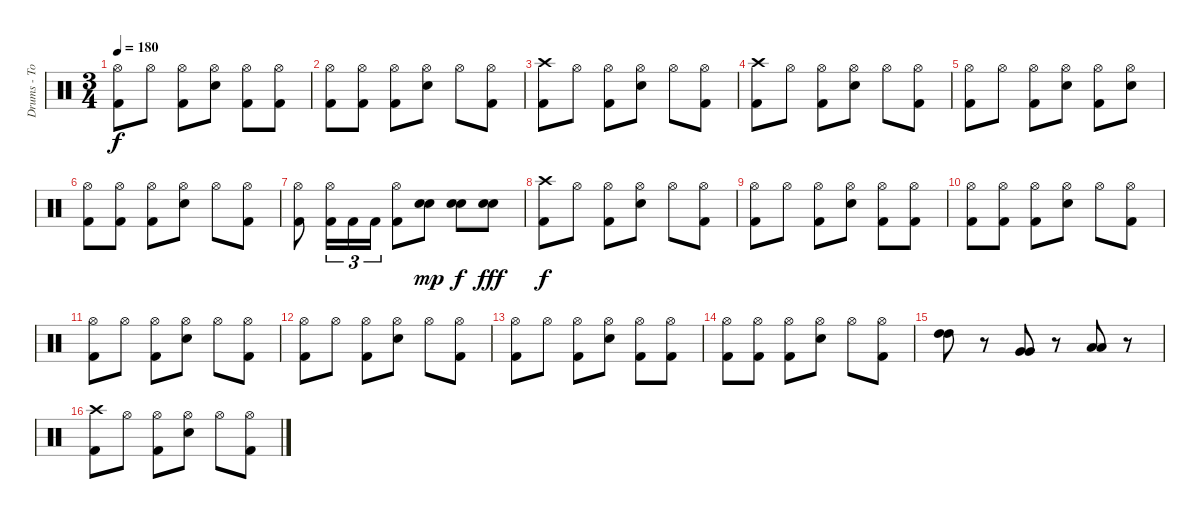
\track ("Drums - Tomas" "Drums - To") {instrument percussion}
\staff {score}
\articulation defaults
\ts (3 4)
\tempo 180
\clef neutral
\ks c
("Hi-Hat (open)" "Kick (hit) 2").8{dy f} "Hi-Hat (open)".8 ("Hi-Hat (open)" "Kick (hit) 2").8 ("Hi-Hat (open)" "Electric Snare (hit)").8 ("Hi-Hat (open)" "Kick (hit) 2").8 ("Hi-Hat (open)" "Kick (hit) 2").8 |
("Hi-Hat (open)" "Kick (hit) 2").8 ("Hi-Hat (open)" "Kick (hit) 2").8 ("Hi-Hat (open)" "Kick (hit) 2").8 ("Hi-Hat (open)" "Electric Snare (hit)").8 "Hi-Hat (open)".8 ("Hi-Hat (open)" "Kick (hit) 2").8 |
("Crash high (hit)" "Kick (hit) 2").8 "Hi-Hat (open)".8 ("Hi-Hat (open)" "Kick (hit) 2").8 ("Hi-Hat (open)" "Electric Snare (hit)").8 "Hi-Hat (open)".8 ("Hi-Hat (open)" "Kick (hit) 2").8 |
("Crash high (hit)" "Kick (hit) 2").8 "Hi-Hat (open)".8 ("Hi-Hat (open)" "Kick (hit) 2").8 ("Hi-Hat (open)" "Electric Snare (hit)").8 "Hi-Hat (open)".8 ("Hi-Hat (open)" "Kick (hit) 2").8 |
("Hi-Hat (open)" "Kick (hit) 2").8 "Hi-Hat (open)".8 ("Hi-Hat (open)" "Kick (hit) 2").8 ("Hi-Hat (open)" "Electric Snare (hit)").8 ("Hi-Hat (open)" "Kick (hit) 2").8 ("Hi-Hat (open)" "Electric Snare (hit)").8 |
("Hi-Hat (open)" "Kick (hit) 2").8 ("Hi-Hat (open)" "Kick (hit) 2").8 ("Hi-Hat (open)" "Kick (hit) 2").8 ("Hi-Hat (open)" "Electric Snare (hit)").8 "Hi-Hat (open)".8 ("Hi-Hat (open)" "Kick (hit) 2").8 |
("Hi-Hat (open)" "Kick (hit) 2").8 ("Hi-Hat (open)" "Kick (hit) 2").16{tu (3 2)} "Kick (hit) 2".16{tu (3 2)} "Kick (hit) 2".16{tu (3 2)} ("Hi-Hat (open)" "Kick (hit) 2").8 ("Electric Snare (hit)" "Electric Snare (hit)").8{dy mp} ("Electric Snare (hit)" "Electric Snare (hit)").8{dy f} ("Electric Snare (hit)" "Electric Snare (hit)").8{dy fff} |
("Crash high (hit)" "Kick (hit) 2").8{dy f} "Hi-Hat (open)".8 ("Hi-Hat (open)" "Kick (hit) 2").8 ("Hi-Hat (open)" "Electric Snare (hit)").8 "Hi-Hat (open)".8 ("Hi-Hat (open)" "Kick (hit) 2").8 |
("Hi-Hat (open)" "Kick (hit) 2").8 "Hi-Hat (open)".8 ("Hi-Hat (open)" "Kick (hit) 2").8 ("Hi-Hat (open)" "Electric Snare (hit)").8 ("Hi-Hat (open)" "Kick (hit) 2").8 ("Hi-Hat (open)" "Kick (hit) 2").8 |
("Hi-Hat (open)" "Kick (hit) 2").8 ("Hi-Hat (open)" "Kick (hit) 2").8 ("Hi-Hat (open)" "Kick (hit) 2").8 ("Hi-Hat (open)" "Electric Snare (hit)").8 "Hi-Hat (open)".8 ("Hi-Hat (open)" "Kick (hit) 2").8 |
("Hi-Hat (open)" "Kick (hit) 2").8 "Hi-Hat (open)".8 ("Hi-Hat (open)" "Kick (hit) 2").8 ("Hi-Hat (open)" "Electric Snare (hit)").8 "Hi-Hat (open)".8 ("Hi-Hat (open)" "Kick (hit) 2").8 |
("Hi-Hat (open)" "Kick (hit) 2").8 "Hi-Hat (open)".8 ("Hi-Hat (open)" "Kick (hit) 2").8 ("Hi-Hat (open)" "Electric Snare (hit)").8 "Hi-Hat (open)".8 ("Hi-Hat (open)" "Kick (hit) 2").8 |
("Hi-Hat (open)" "Kick (hit) 2").8 "Hi-Hat (open)".8 ("Hi-Hat (open)" "Kick (hit) 2").8 ("Hi-Hat (open)" "Electric Snare (hit)").8 ("Hi-Hat (open)" "Kick (hit) 2").8 ("Hi-Hat (open)" "Kick (hit) 2").8 |
("Hi-Hat (open)" "Kick (hit) 2").8 ("Hi-Hat (open)" "Kick (hit) 2").8 ("Hi-Hat (open)" "Kick (hit) 2").8 ("Hi-Hat (open)" "Electric Snare (hit)").8 "Hi-Hat (open)".8 ("Hi-Hat (open)" "Kick (hit) 2").8 |
("High Tom (hit)" "High Tom (hit)").8 r.8 ("Very Low Tom (hit)" "Very Low Tom (hit)").8 r.8 ("Low Tom (hit)" "Low Tom (hit)").8 r.8 |
("Crash high (hit)" "Kick (hit) 2").8 "Hi-Hat (open)".8 ("Hi-Hat (open)" "Kick (hit) 2").8 ("Hi-Hat (open)" "Electric Snare (hit)").8 "Hi-Hat (open)".8 ("Hi-Hat (open)" "Kick (hit) 2").8
